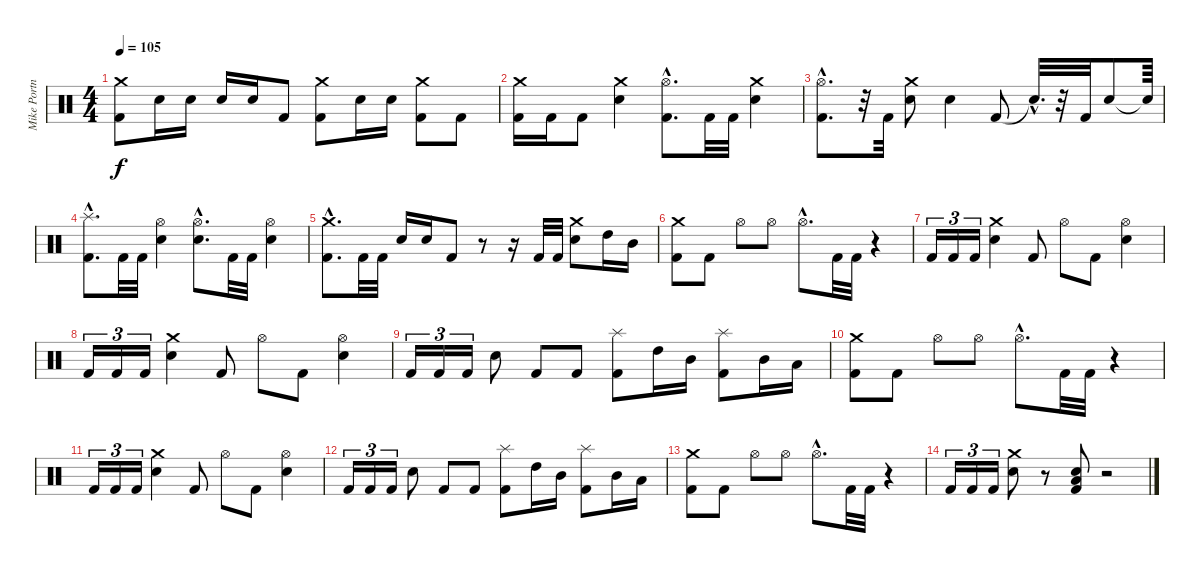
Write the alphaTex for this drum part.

\track ("Mike Portnoy" "Mike Portn") {instrument percussion}
\staff {score}
\articulation defaults
\ts (4 4)
\tempo 105
\clef neutral
\ks c
("Crash medium (hit)" "Kick (hit) 2").8{dy f} "Electric Snare (hit)".16 "Electric Snare (hit)".16 "Electric Snare (hit)".16 "Electric Snare (hit)".16 "Kick (hit) 2".8 ("Crash medium (hit)" "Kick (hit) 2").8 "Electric Snare (hit)".16 "Electric Snare (hit)".16 ("Crash medium (hit)" "Kick (hit) 2").8 "Kick (hit) 2".8 |
("Crash medium (hit)" "Kick (hit) 2").16 "Kick (hit) 2".16 "Kick (hit) 2".8 ("Crash medium (hit)" "Electric Snare (hit)").4 ("Hi-Hat (open)"{hac} "Kick (hit) 2"{hac}).8{d} "Kick (hit) 2".32 "Kick (hit) 2".32 ("Crash medium (hit)" "Electric Snare (hit)").4 |
("Hi-Hat (open)"{hac} "Kick (hit) 2"{hac}).8{d} r.32 "Kick (hit) 2".32 ("Crash medium (hit)" "Electric Snare (hit)").8 "Electric Snare (hit)".4 "Kick (hit) 2".8 "Snare (hit)"{hac t}.32{d} r.32 "Kick (hit) 2".32 "Electric Snare (hit)".8 "Snare (hit)"{t}.64 |
("Splash (hit)"{hac} "Kick (hit) 2"{hac}).8{d} "Kick (hit) 2".32 "Kick (hit) 2".32 ("Hi-Hat (open)" "Electric Snare (hit)").4 ("Hi-Hat (open)"{hac} "Electric Snare (hit)"{hac}).8{d} "Kick (hit) 2".32 "Kick (hit) 2".32 ("Hi-Hat (open)" "Electric Snare (hit)").4 |
("Crash medium (hit)"{hac} "Kick (hit) 2"{hac}).8{d} "Kick (hit) 2".32 "Kick (hit) 2".32 "Electric Snare (hit)".16 "Electric Snare (hit)".16 "Kick (hit) 2".8 r.8 r.16 "Kick (hit) 2".32 "Kick (hit) 2".32 ("Crash medium (hit)" "Electric Snare (hit)").8 "High Tom (hit)".16 "Mid Tom (hit)".16 |
("Crash medium (hit)" "Kick (hit) 2").8 "Kick (hit) 2".8 "Hi-Hat (open)".8 "Hi-Hat (open)".8 "Hi-Hat (open)"{hac}.8{d} "Kick (hit) 2".32 "Kick (hit) 2".32 r.4 |
"Kick (hit) 2".16{tu (3 2)} "Kick (hit) 2".16{tu (3 2)} "Kick (hit) 2".16{tu (3 2)} ("Crash medium (hit)" "Electric Snare (hit)").4 "Kick (hit) 2".8 "Hi-Hat (open)".8 "Kick (hit) 2".8 ("Hi-Hat (open)" "Electric Snare (hit)").4 |
"Kick (hit) 2".16{tu (3 2)} "Kick (hit) 2".16{tu (3 2)} "Kick (hit) 2".16{tu (3 2)} ("Crash medium (hit)" "Electric Snare (hit)").4 "Kick (hit) 2".8 "Hi-Hat (open)".8 "Kick (hit) 2".8 ("Hi-Hat (open)" "Electric Snare (hit)").4 |
"Kick (hit) 2".16{tu (3 2)} "Kick (hit) 2".16{tu (3 2)} "Kick (hit) 2".16{tu (3 2)} "Electric Snare (hit)".8 "Kick (hit) 2".8 "Kick (hit) 2".8 ("Splash (hit)" "Kick (hit) 2").8 "High Tom (hit)".16 "Mid Tom (hit)".16 ("Splash (hit)" "Kick (hit) 2").8 "Mid Tom (hit)".16 "Low Tom (hit)".16 |
("Crash medium (hit)" "Kick (hit) 2").8 "Kick (hit) 2".8 "Hi-Hat (open)".8 "Hi-Hat (open)".8 "Hi-Hat (open)"{hac}.8{d} "Kick (hit) 2".32 "Kick (hit) 2".32 r.4 |
"Kick (hit) 2".16{tu (3 2)} "Kick (hit) 2".16{tu (3 2)} "Kick (hit) 2".16{tu (3 2)} ("Crash medium (hit)" "Electric Snare (hit)").4 "Kick (hit) 2".8 "Hi-Hat (open)".8 "Kick (hit) 2".8 ("Hi-Hat (open)" "Electric Snare (hit)").4 |
"Kick (hit) 2".16{tu (3 2)} "Kick (hit) 2".16{tu (3 2)} "Kick (hit) 2".16{tu (3 2)} "Electric Snare (hit)".8 "Kick (hit) 2".8 "Kick (hit) 2".8 ("Splash (hit)" "Kick (hit) 2").8 "High Tom (hit)".16 "Mid Tom (hit)".16 ("Splash (hit)" "Kick (hit) 2").8 "Mid Tom (hit)".16 "Low Tom (hit)".16 |
("Crash medium (hit)" "Kick (hit) 2").8 "Kick (hit) 2".8 "Hi-Hat (open)".8 "Hi-Hat (open)".8 "Hi-Hat (open)"{hac}.8{d} "Kick (hit) 2".32 "Kick (hit) 2".32 r.4 |
"Kick (hit) 2".16{tu (3 2)} "Kick (hit) 2".16{tu (3 2)} "Kick (hit) 2".16{tu (3 2)} ("Crash medium (hit)" "Electric Snare (hit)").8 r.8 ("Low Floor Tom (hit)" "Electric Snare (hit)" "Kick (hit) 2").8 r.2
